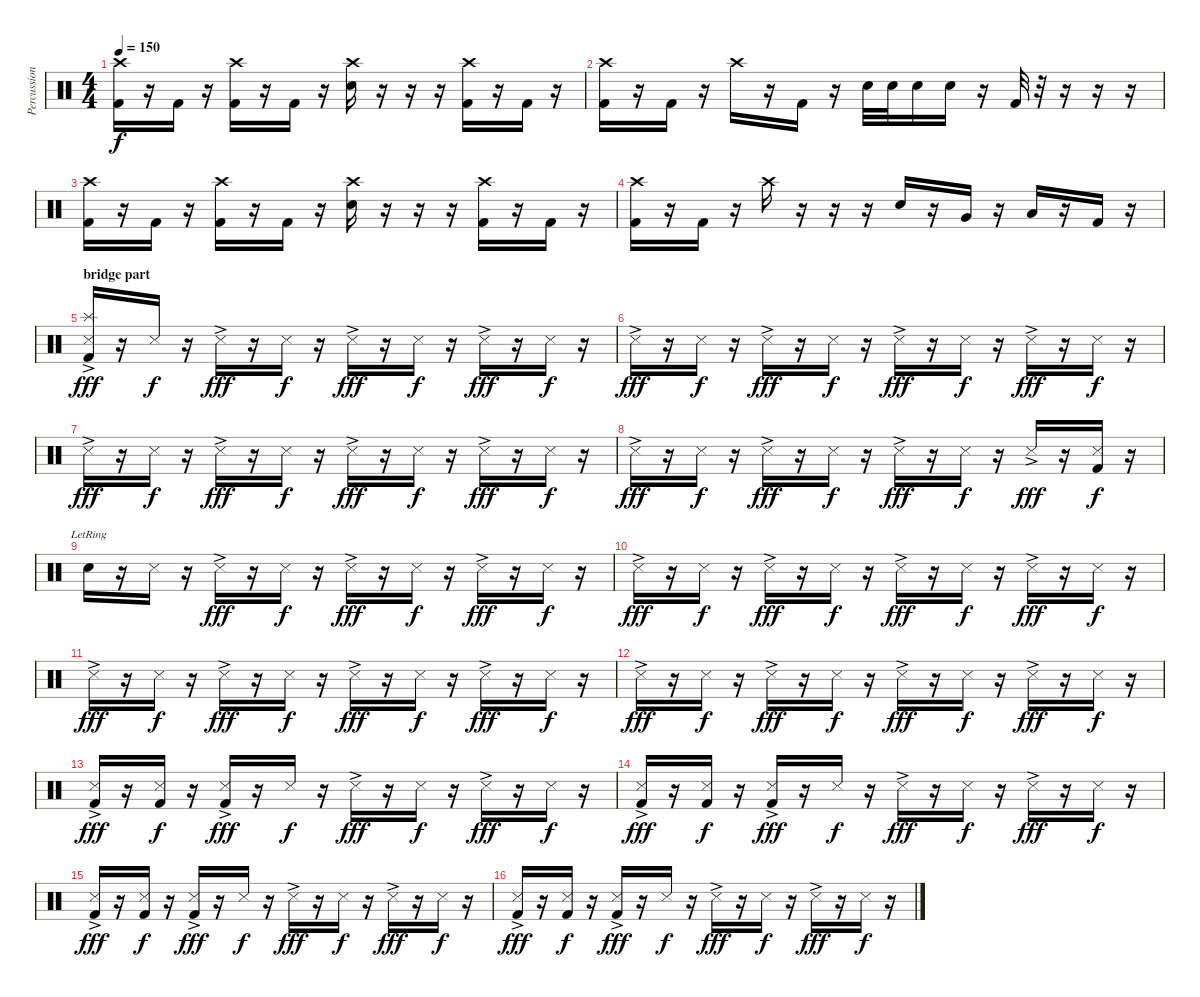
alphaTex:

\track ("Percussion" "Percussion") {instrument percussion}
\staff {score}
\articulation defaults
\ts (4 4)
\tempo 150
\clef neutral
\ks c
("Crash high (hit)" "Kick (hit) 2").16{dy f} r.16 "Kick (hit) 2".16 r.16 ("Crash high (hit)" "Kick (hit) 2").16 r.16 "Kick (hit) 2".16 r.16 ("Crash high (hit)" "Electric Snare (hit)").16 r.16 r.16 r.16 ("Crash high (hit)" "Kick (hit) 2").16 r.16 "Kick (hit) 2".16 r.16 |
("Crash high (hit)" "Kick (hit) 2").16 r.16 "Kick (hit) 2".16 r.16 "Crash high (hit)".16 r.16 "Kick (hit) 2".16 r.16 "Electric Snare (hit)".32 "Electric Snare (hit)".32 "Electric Snare (hit)".16 "Electric Snare (hit)".16 r.16 "Kick (hit) 2".32 r.32 r.16 r.16 r.16 |
("Crash high (hit)" "Kick (hit) 2").16 r.16 "Kick (hit) 2".16 r.16 ("Crash high (hit)" "Kick (hit) 2").16 r.16 "Kick (hit) 2".16 r.16 ("Crash high (hit)" "Electric Snare (hit)").16 r.16 r.16 r.16 ("Crash high (hit)" "Kick (hit) 2").16 r.16 "Kick (hit) 2".16 r.16 |
("Crash high (hit)" "Kick (hit) 2").16 r.16 "Kick (hit) 2".16 r.16 "Crash high (hit)".16 r.16 r.16 r.16 "Electric Snare (hit)".16 r.16 "Very Low Tom (hit)".16 r.16 "Low Floor Tom (hit)".16 r.16 "Kick (hit) 2".16 r.16 |
\section ("" "bridge part")
("Splash (hit)" "Snare (side stick) 3"{ac} "Kick (hit) 2").16{dy fff} r.16 "Snare (side stick) 3".16{dy f} r.16 "Snare (side stick) 3"{ac}.16{dy fff} r.16 "Snare (side stick) 3".16{dy f} r.16 "Snare (side stick) 3"{ac}.16{dy fff} r.16 "Snare (side stick) 3".16{dy f} r.16 "Snare (side stick) 3"{ac}.16{dy fff} r.16 "Snare (side stick) 3".16{dy f} r.16 |
"Snare (side stick) 3"{ac}.16{dy fff} r.16 "Snare (side stick) 3".16{dy f} r.16 "Snare (side stick) 3"{ac}.16{dy fff} r.16 "Snare (side stick) 3".16{dy f} r.16 "Snare (side stick) 3"{ac}.16{dy fff} r.16 "Snare (side stick) 3".16{dy f} r.16 "Snare (side stick) 3"{ac}.16{dy fff} r.16 "Snare (side stick) 3".16{dy f} r.16 |
"Snare (side stick) 3"{ac}.16{dy fff} r.16 "Snare (side stick) 3".16{dy f} r.16 "Snare (side stick) 3"{ac}.16{dy fff} r.16 "Snare (side stick) 3".16{dy f} r.16 "Snare (side stick) 3"{ac}.16{dy fff} r.16 "Snare (side stick) 3".16{dy f} r.16 "Snare (side stick) 3"{ac}.16{dy fff} r.16 "Snare (side stick) 3".16{dy f} r.16 |
"Snare (side stick) 3"{ac}.16{dy fff} r.16 "Snare (side stick) 3".16{dy f} r.16 "Snare (side stick) 3"{ac}.16{dy fff} r.16 "Snare (side stick) 3".16{dy f} r.16 "Snare (side stick) 3"{ac}.16{dy fff} r.16 "Snare (side stick) 3".16{dy f} r.16 "Snare (side stick) 3"{ac}.16{dy fff} r.16 ("Snare (side stick) 3" "Kick (hit) 2").16{dy f} r.16 |
"Electric Snare (hit)"{lr}.16 r.16 "Snare (side stick) 3".16 r.16 "Snare (side stick) 3"{ac}.16{dy fff} r.16 "Snare (side stick) 3".16{dy f} r.16 "Snare (side stick) 3"{ac}.16{dy fff} r.16 "Snare (side stick) 3".16{dy f} r.16 "Snare (side stick) 3"{ac}.16{dy fff} r.16 "Snare (side stick) 3".16{dy f} r.16 |
"Snare (side stick) 3"{ac}.16{dy fff} r.16 "Snare (side stick) 3".16{dy f} r.16 "Snare (side stick) 3"{ac}.16{dy fff} r.16 "Snare (side stick) 3".16{dy f} r.16 "Snare (side stick) 3"{ac}.16{dy fff} r.16 "Snare (side stick) 3".16{dy f} r.16 "Snare (side stick) 3"{ac}.16{dy fff} r.16 "Snare (side stick) 3".16{dy f} r.16 |
"Snare (side stick) 3"{ac}.16{dy fff} r.16 "Snare (side stick) 3".16{dy f} r.16 "Snare (side stick) 3"{ac}.16{dy fff} r.16 "Snare (side stick) 3".16{dy f} r.16 "Snare (side stick) 3"{ac}.16{dy fff} r.16 "Snare (side stick) 3".16{dy f} r.16 "Snare (side stick) 3"{ac}.16{dy fff} r.16 "Snare (side stick) 3".16{dy f} r.16 |
"Snare (side stick) 3"{ac}.16{dy fff} r.16 "Snare (side stick) 3".16{dy f} r.16 "Snare (side stick) 3"{ac}.16{dy fff} r.16 "Snare (side stick) 3".16{dy f} r.16 "Snare (side stick) 3"{ac}.16{dy fff} r.16 "Snare (side stick) 3".16{dy f} r.16 "Snare (side stick) 3"{ac}.16{dy fff} r.16 "Snare (side stick) 3".16{dy f} r.16 |
("Snare (side stick) 3"{ac} "Kick (hit) 2").16{dy fff} r.16 ("Snare (side stick) 3" "Kick (hit) 2").16{dy f} r.16 ("Snare (side stick) 3"{ac} "Kick (hit) 2").16{dy fff} r.16 "Snare (side stick) 3".16{dy f} r.16 "Snare (side stick) 3"{ac}.16{dy fff} r.16 "Snare (side stick) 3".16{dy f} r.16 "Snare (side stick) 3"{ac}.16{dy fff} r.16 "Snare (side stick) 3".16{dy f} r.16 |
("Snare (side stick) 3"{ac} "Kick (hit) 2").16{dy fff} r.16 ("Snare (side stick) 3" "Kick (hit) 2").16{dy f} r.16 ("Snare (side stick) 3"{ac} "Kick (hit) 2").16{dy fff} r.16 "Snare (side stick) 3".16{dy f} r.16 "Snare (side stick) 3"{ac}.16{dy fff} r.16 "Snare (side stick) 3".16{dy f} r.16 "Snare (side stick) 3"{ac}.16{dy fff} r.16 "Snare (side stick) 3".16{dy f} r.16 |
("Snare (side stick) 3"{ac} "Kick (hit) 2").16{dy fff} r.16 ("Snare (side stick) 3" "Kick (hit) 2").16{dy f} r.16 ("Snare (side stick) 3"{ac} "Kick (hit) 2").16{dy fff} r.16 "Snare (side stick) 3".16{dy f} r.16 "Snare (side stick) 3"{ac}.16{dy fff} r.16 "Snare (side stick) 3".16{dy f} r.16 "Snare (side stick) 3"{ac}.16{dy fff} r.16 "Snare (side stick) 3".16{dy f} r.16 |
("Snare (side stick) 3"{ac} "Kick (hit) 2").16{dy fff} r.16 ("Snare (side stick) 3" "Kick (hit) 2").16{dy f} r.16 ("Snare (side stick) 3"{ac} "Kick (hit) 2").16{dy fff} r.16 "Snare (side stick) 3".16{dy f} r.16 "Snare (side stick) 3"{ac}.16{dy fff} r.16 "Snare (side stick) 3".16{dy f} r.16 "Snare (side stick) 3"{ac}.16{dy fff} r.16 "Snare (side stick) 3".16{dy f} r.16
